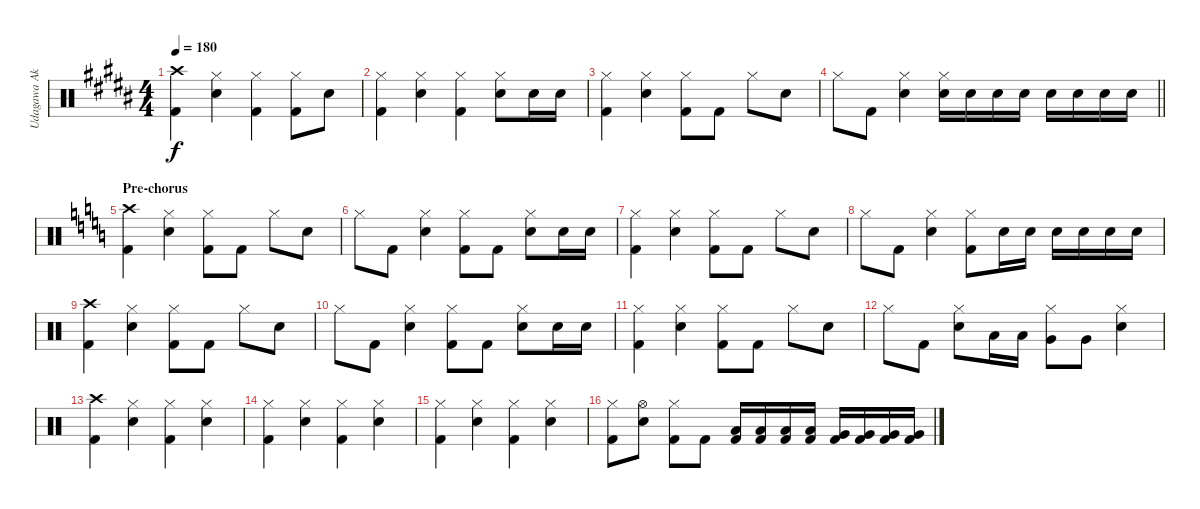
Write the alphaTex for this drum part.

\track ("Udagawa Ako" "Udagawa Ak") {instrument percussion}
\staff {score}
\articulation defaults
\ts (4 4)
\tempo 180
\clef neutral
\ks b
("Crash high (hit)" "Kick (hit) 2").4{dy f} ("Hi-Hat (closed)" "Electric Snare (hit)").4 ("Hi-Hat (closed)" "Kick (hit) 2").4 ("Hi-Hat (closed)" "Kick (hit) 2").8 "Electric Snare (hit)".8 |
("Hi-Hat (closed)" "Kick (hit) 2").4 ("Hi-Hat (closed)" "Electric Snare (hit)").4 ("Hi-Hat (closed)" "Kick (hit) 2").4 ("Hi-Hat (closed)" "Electric Snare (hit)").8 "Electric Snare (hit)".16 "Electric Snare (hit)".16 |
("Hi-Hat (closed)" "Kick (hit) 2").4 ("Hi-Hat (closed)" "Electric Snare (hit)").4 ("Hi-Hat (closed)" "Kick (hit) 2").8 "Kick (hit) 2".8 "Hi-Hat (closed)".8 "Electric Snare (hit)".8 |
\barLineRight lightlight "Hi-Hat (closed)".8 "Kick (hit) 2".8
("Hi-Hat (closed)" "Electric Snare (hit)").4 ("Hi-Hat (closed)" "Electric Snare (hit)").16 "Electric Snare (hit)".16 "Electric Snare (hit)".16 "Electric Snare (hit)".16 "Electric Snare (hit)".16 "Electric Snare (hit)".16 "Electric Snare (hit)".16 "Electric Snare (hit)".16 |
\section ("" "Pre-chorus")
\ks c
("Crash high (hit)" "Kick (hit) 2").4 ("Hi-Hat (closed)" "Electric Snare (hit)").4 ("Hi-Hat (closed)" "Kick (hit) 2").8 "Kick (hit) 2".8 "Hi-Hat (closed)".8 "Electric Snare (hit)".8 |
"Hi-Hat (closed)".8 "Kick (hit) 2".8 ("Hi-Hat (closed)" "Electric Snare (hit)").4 ("Hi-Hat (closed)" "Kick (hit) 2").8 "Kick (hit) 2".8 ("Hi-Hat (closed)" "Electric Snare (hit)").8 "Electric Snare (hit)".16 "Electric Snare (hit)".16 |
("Hi-Hat (closed)" "Kick (hit) 2").4 ("Hi-Hat (closed)" "Electric Snare (hit)").4 ("Hi-Hat (closed)" "Kick (hit) 2").8 "Kick (hit) 2".8 "Hi-Hat (closed)".8 "Electric Snare (hit)".8 |
"Hi-Hat (closed)".8 "Kick (hit) 2".8 ("Hi-Hat (closed)" "Electric Snare (hit)").4 ("Hi-Hat (closed)" "Kick (hit) 2").8 "Electric Snare (hit)".16 "Electric Snare (hit)".16 "Electric Snare (hit)".16 "Electric Snare (hit)".16 "Electric Snare (hit)".16 "Electric Snare (hit)".16 |
("Crash high (hit)" "Kick (hit) 2").4 ("Hi-Hat (closed)" "Electric Snare (hit)").4 ("Hi-Hat (closed)" "Kick (hit) 2").8 "Kick (hit) 2".8 "Hi-Hat (closed)".8 "Electric Snare (hit)".8 |
"Hi-Hat (closed)".8 "Kick (hit) 2".8 ("Hi-Hat (closed)" "Electric Snare (hit)").4 ("Hi-Hat (closed)" "Kick (hit) 2").8 "Kick (hit) 2".8 ("Hi-Hat (closed)" "Electric Snare (hit)").8 "Electric Snare (hit)".16 "Electric Snare (hit)".16 |
("Hi-Hat (closed)" "Kick (hit) 2").4 ("Hi-Hat (closed)" "Electric Snare (hit)").4 ("Hi-Hat (closed)" "Kick (hit) 2").8 "Kick (hit) 2".8 "Hi-Hat (closed)".8 "Electric Snare (hit)".8 |
"Hi-Hat (closed)".8 "Kick (hit) 2".8 ("Hi-Hat (closed)" "Electric Snare (hit)").8 "Low Tom (hit)".16 "Low Tom (hit)".16 ("Hi-Hat (closed)" "Very Low Tom (hit)").8 "Very Low Tom (hit)".8 ("Hi-Hat (closed)" "Electric Snare (hit)").4 |
("Crash high (hit)" "Kick (hit) 2").4 ("Hi-Hat (closed)" "Electric Snare (hit)").4 ("Hi-Hat (closed)" "Kick (hit) 2").4 ("Hi-Hat (closed)" "Electric Snare (hit)").4 |
("Hi-Hat (closed)" "Kick (hit) 2").4 ("Hi-Hat (closed)" "Electric Snare (hit)").4 ("Hi-Hat (closed)" "Kick (hit) 2").4 ("Hi-Hat (closed)" "Electric Snare (hit)").4 |
("Hi-Hat (closed)" "Kick (hit) 2").4 ("Hi-Hat (closed)" "Electric Snare (hit)").4 ("Hi-Hat (closed)" "Kick (hit) 2").4 ("Hi-Hat (closed)" "Electric Snare (hit)").4 |
("Hi-Hat (closed)" "Kick (hit) 2").8 ("Hi-Hat (open)" "Electric Snare (hit)").8 ("Hi-Hat (closed)" "Kick (hit) 2").8 "Kick (hit) 2".8 ("Low Tom (hit)" "Kick (hit) 2").16 ("Low Tom (hit)" "Kick (hit) 2").16 ("Low Tom (hit)" "Kick (hit) 2").16 ("Low Tom (hit)" "Kick (hit) 2").16 ("Very Low Tom (hit)" "Kick (hit) 2").16 ("Very Low Tom (hit)" "Kick (hit) 2").16 ("Very Low Tom (hit)" "Kick (hit) 2").16 ("Very Low Tom (hit)" "Kick (hit) 2").16
